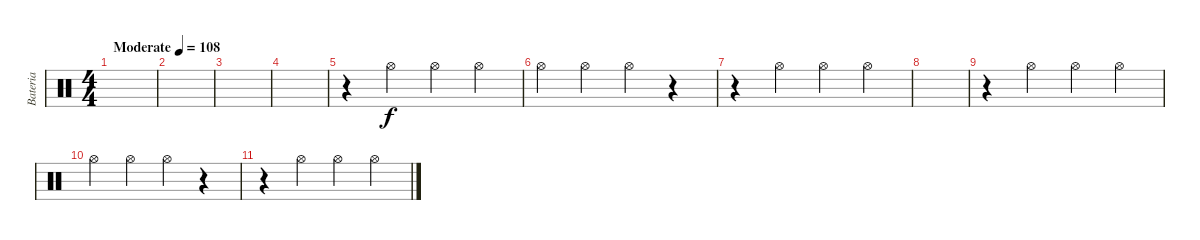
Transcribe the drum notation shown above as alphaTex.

\track ("Bateria" "Bateria") {instrument percussion}
\staff {score}
\articulation defaults
\ts (4 4)
\tempo (108 "Moderate")
\clef neutral
\ks c
|
|
|
|
r.4 "Hi-Hat (open)".4 "Hi-Hat (open)".4 "Hi-Hat (open)".4 |
"Hi-Hat (open)".4 "Hi-Hat (open)".4 "Hi-Hat (open)".4 r.4 |
r.4 "Hi-Hat (open)".4 "Hi-Hat (open)".4 "Hi-Hat (open)".4 |
|
r.4 "Hi-Hat (open)".4 "Hi-Hat (open)".4 "Hi-Hat (open)".4 |
"Hi-Hat (open)".4 "Hi-Hat (open)".4 "Hi-Hat (open)".4 r.4 |
r.4 "Hi-Hat (open)".4 "Hi-Hat (open)".4 "Hi-Hat (open)".4
